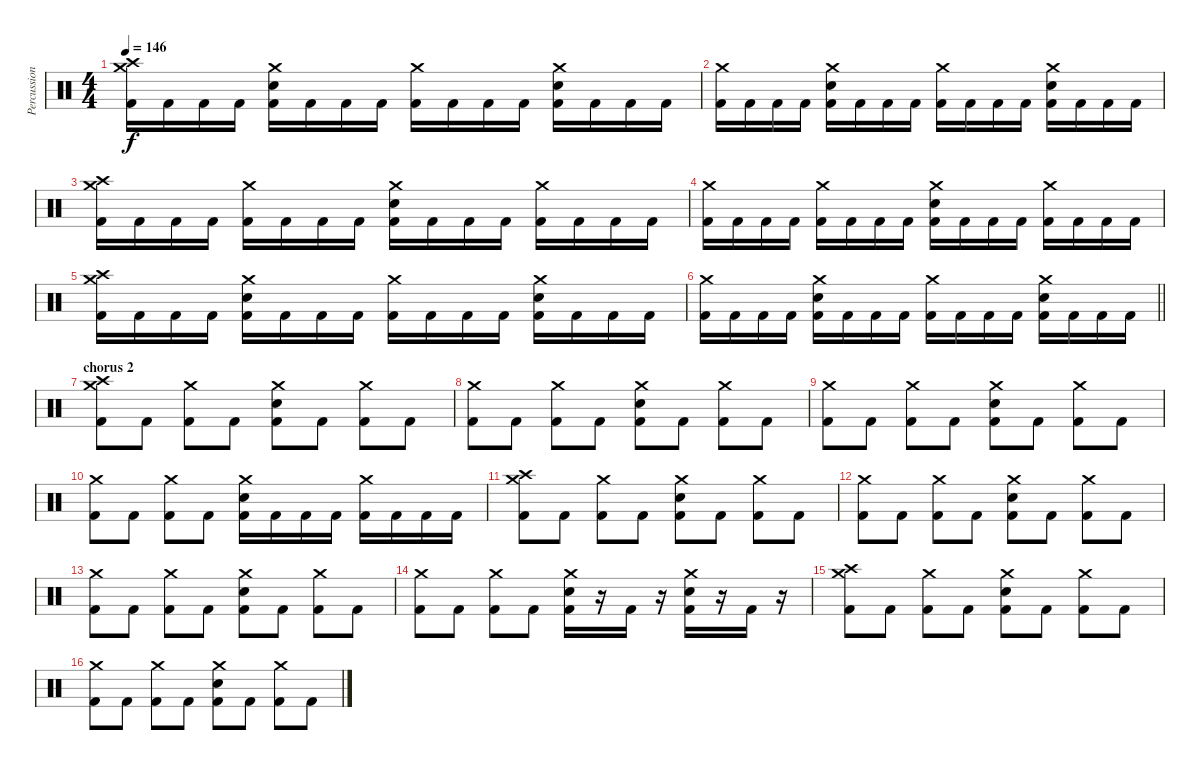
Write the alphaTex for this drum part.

\track ("Percussion" "Percussion") {instrument percussion}
\staff {score}
\articulation defaults
\ts (4 4)
\tempo 146
\clef neutral
\ks c
("Crash high (hit)" "Crash medium (hit)" "Kick (hit) 2").16{dy f} "Kick (hit) 2".16 "Kick (hit) 2".16 "Kick (hit) 2".16 ("Crash medium (hit)" "Snare (hit) 2" "Kick (hit) 2").16 "Kick (hit) 2".16 "Kick (hit) 2".16 "Kick (hit) 2".16 ("Crash medium (hit)" "Kick (hit) 2").16 "Kick (hit) 2".16 "Kick (hit) 2".16 "Kick (hit) 2".16 ("Crash medium (hit)" "Snare (hit) 2" "Kick (hit) 2").16 "Kick (hit) 2".16 "Kick (hit) 2".16 "Kick (hit) 2".16 |
("Crash medium (hit)" "Kick (hit) 2").16 "Kick (hit) 2".16 "Kick (hit) 2".16 "Kick (hit) 2".16 ("Crash medium (hit)" "Snare (hit) 2" "Kick (hit) 2").16 "Kick (hit) 2".16 "Kick (hit) 2".16 "Kick (hit) 2".16 ("Crash medium (hit)" "Kick (hit) 2").16 "Kick (hit) 2".16 "Kick (hit) 2".16 "Kick (hit) 2".16 ("Crash medium (hit)" "Snare (hit) 2" "Kick (hit) 2").16 "Kick (hit) 2".16 "Kick (hit) 2".16 "Kick (hit) 2".16 |
("Crash high (hit)" "Crash medium (hit)" "Kick (hit) 2").16 "Kick (hit) 2".16 "Kick (hit) 2".16 "Kick (hit) 2".16 ("Crash medium (hit)" "Kick (hit) 2").16 "Kick (hit) 2".16 "Kick (hit) 2".16 "Kick (hit) 2".16 ("Crash medium (hit)" "Snare (hit) 2" "Kick (hit) 2").16 "Kick (hit) 2".16 "Kick (hit) 2".16 "Kick (hit) 2".16 ("Crash medium (hit)" "Kick (hit) 2").16 "Kick (hit) 2".16 "Kick (hit) 2".16 "Kick (hit) 2".16 |
("Crash medium (hit)" "Kick (hit) 2").16 "Kick (hit) 2".16 "Kick (hit) 2".16 "Kick (hit) 2".16 ("Crash medium (hit)" "Kick (hit) 2").16 "Kick (hit) 2".16 "Kick (hit) 2".16 "Kick (hit) 2".16 ("Crash medium (hit)" "Snare (hit) 2" "Kick (hit) 2").16 "Kick (hit) 2".16 "Kick (hit) 2".16 "Kick (hit) 2".16 ("Crash medium (hit)" "Kick (hit) 2").16 "Kick (hit) 2".16 "Kick (hit) 2".16 "Kick (hit) 2".16 |
("Crash high (hit)" "Crash medium (hit)" "Kick (hit) 2").16 "Kick (hit) 2".16 "Kick (hit) 2".16 "Kick (hit) 2".16 ("Crash medium (hit)" "Snare (hit) 2" "Kick (hit) 2").16 "Kick (hit) 2".16 "Kick (hit) 2".16 "Kick (hit) 2".16 ("Crash medium (hit)" "Kick (hit) 2").16 "Kick (hit) 2".16 "Kick (hit) 2".16 "Kick (hit) 2".16 ("Crash medium (hit)" "Snare (hit) 2" "Kick (hit) 2").16 "Kick (hit) 2".16 "Kick (hit) 2".16 "Kick (hit) 2".16 |
\barLineRight lightlight
("Crash medium (hit)" "Kick (hit) 2").16 "Kick (hit) 2".16 "Kick (hit) 2".16 "Kick (hit) 2".16 ("Crash medium (hit)" "Snare (hit) 2" "Kick (hit) 2").16 "Kick (hit) 2".16 "Kick (hit) 2".16 "Kick (hit) 2".16 ("Crash medium (hit)" "Kick (hit) 2").16 "Kick (hit) 2".16 "Kick (hit) 2".16 "Kick (hit) 2".16 ("Crash medium (hit)" "Snare (hit) 2" "Kick (hit) 2").16 "Kick (hit) 2".16 "Kick (hit) 2".16 "Kick (hit) 2".16 |
\section ("" "chorus 2")
("Crash high (hit)" "Crash medium (hit)" "Kick (hit) 2").8 "Kick (hit) 2".8 ("Crash medium (hit)" "Kick (hit) 2").8 "Kick (hit) 2".8 ("Crash medium (hit)" "Snare (hit) 2" "Kick (hit) 2").8 "Kick (hit) 2".8 ("Crash medium (hit)" "Kick (hit) 2").8 "Kick (hit) 2".8 |
("Crash medium (hit)" "Kick (hit) 2").8 "Kick (hit) 2".8 ("Crash medium (hit)" "Kick (hit) 2").8 "Kick (hit) 2".8 ("Crash medium (hit)" "Snare (hit) 2" "Kick (hit) 2").8 "Kick (hit) 2".8 ("Crash medium (hit)" "Kick (hit) 2").8 "Kick (hit) 2".8 |
("Crash medium (hit)" "Kick (hit) 2").8 "Kick (hit) 2".8 ("Crash medium (hit)" "Kick (hit) 2").8 "Kick (hit) 2".8 ("Crash medium (hit)" "Snare (hit) 2" "Kick (hit) 2").8 "Kick (hit) 2".8 ("Crash medium (hit)" "Kick (hit) 2").8 "Kick (hit) 2".8 |
("Crash medium (hit)" "Kick (hit) 2").8 "Kick (hit) 2".8 ("Crash medium (hit)" "Kick (hit) 2").8 "Kick (hit) 2".8 ("Crash medium (hit)" "Snare (hit) 2" "Kick (hit) 2").16 "Kick (hit) 2".16 "Kick (hit) 2".16 "Kick (hit) 2".16 ("Crash medium (hit)" "Kick (hit) 2").16 "Kick (hit) 2".16 "Kick (hit) 2".16 "Kick (hit) 2".16 |
("Crash high (hit)" "Crash medium (hit)" "Kick (hit) 2").8 "Kick (hit) 2".8 ("Crash medium (hit)" "Kick (hit) 2").8 "Kick (hit) 2".8 ("Crash medium (hit)" "Snare (hit) 2" "Kick (hit) 2").8 "Kick (hit) 2".8 ("Crash medium (hit)" "Kick (hit) 2").8 "Kick (hit) 2".8 |
("Crash medium (hit)" "Kick (hit) 2").8 "Kick (hit) 2".8 ("Crash medium (hit)" "Kick (hit) 2").8 "Kick (hit) 2".8 ("Crash medium (hit)" "Snare (hit) 2" "Kick (hit) 2").8 "Kick (hit) 2".8 ("Crash medium (hit)" "Kick (hit) 2").8 "Kick (hit) 2".8 |
("Crash medium (hit)" "Kick (hit) 2").8 "Kick (hit) 2".8 ("Crash medium (hit)" "Kick (hit) 2").8 "Kick (hit) 2".8 ("Crash medium (hit)" "Snare (hit) 2" "Kick (hit) 2").8 "Kick (hit) 2".8 ("Crash medium (hit)" "Kick (hit) 2").8 "Kick (hit) 2".8 |
("Crash medium (hit)" "Kick (hit) 2").8 "Kick (hit) 2".8 ("Crash medium (hit)" "Kick (hit) 2").8 "Kick (hit) 2".8 ("Crash medium (hit)" "Snare (hit) 2" "Kick (hit) 2").16 r.16 "Kick (hit) 2".16 r.16 ("Crash medium (hit)" "Snare (hit) 2" "Kick (hit) 2").16 r.16 "Kick (hit) 2".16 r.16 |
("Crash high (hit)" "Crash medium (hit)" "Kick (hit) 2").8 "Kick (hit) 2".8 ("Crash medium (hit)" "Kick (hit) 2").8 "Kick (hit) 2".8 ("Crash medium (hit)" "Snare (hit) 2" "Kick (hit) 2").8 "Kick (hit) 2".8 ("Crash medium (hit)" "Kick (hit) 2").8 "Kick (hit) 2".8 |
("Crash medium (hit)" "Kick (hit) 2").8 "Kick (hit) 2".8 ("Crash medium (hit)" "Kick (hit) 2").8 "Kick (hit) 2".8 ("Crash medium (hit)" "Snare (hit) 2" "Kick (hit) 2").8 "Kick (hit) 2".8 ("Crash medium (hit)" "Kick (hit) 2").8 "Kick (hit) 2".8
